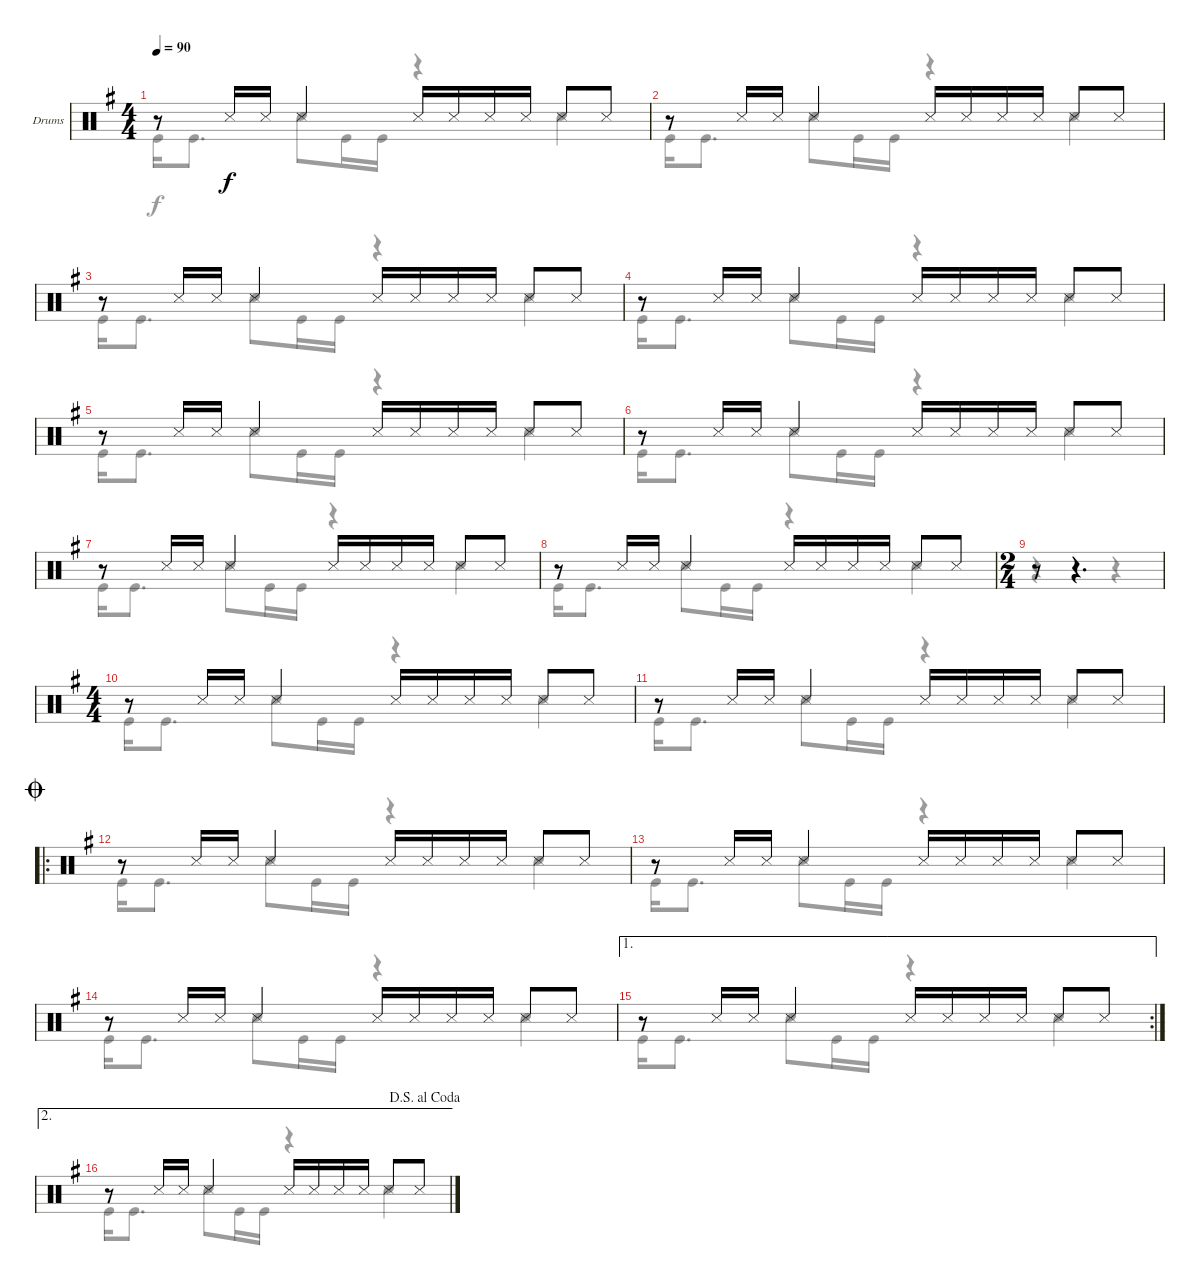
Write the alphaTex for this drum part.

\bracketExtendMode groupsimilarinstruments
\firstSystemTrackNameOrientation horizontal
\otherSystemsTrackNameOrientation horizontal
\track ("Drumkit" "Drums") {instrument percussion}
\staff {score}
\articulation defaults
\voice
\ts (4 4)
\tempo 90
\clef neutral
\ks g
r.8{dy f} "Snare (side stick) 3".16 "Snare (side stick) 3".16 "Snare (side stick) 3".4 "Snare (side stick) 3".16 "Snare (side stick) 3".16 "Snare (side stick) 3".16 "Snare (side stick) 3".16 "Snare (side stick) 3".8 "Snare (side stick) 3".8 |
r.8 "Snare (side stick) 3".16 "Snare (side stick) 3".16 "Snare (side stick) 3".4 "Snare (side stick) 3".16 "Snare (side stick) 3".16 "Snare (side stick) 3".16 "Snare (side stick) 3".16 "Snare (side stick) 3".8 "Snare (side stick) 3".8 |
r.8 "Snare (side stick) 3".16 "Snare (side stick) 3".16 "Snare (side stick) 3".4 "Snare (side stick) 3".16 "Snare (side stick) 3".16 "Snare (side stick) 3".16 "Snare (side stick) 3".16 "Snare (side stick) 3".8 "Snare (side stick) 3".8 |
r.8 "Snare (side stick) 3".16 "Snare (side stick) 3".16 "Snare (side stick) 3".4 "Snare (side stick) 3".16 "Snare (side stick) 3".16 "Snare (side stick) 3".16 "Snare (side stick) 3".16 "Snare (side stick) 3".8 "Snare (side stick) 3".8 |
r.8 "Snare (side stick) 3".16 "Snare (side stick) 3".16 "Snare (side stick) 3".4 "Snare (side stick) 3".16 "Snare (side stick) 3".16 "Snare (side stick) 3".16 "Snare (side stick) 3".16 "Snare (side stick) 3".8 "Snare (side stick) 3".8 |
r.8 "Snare (side stick) 3".16 "Snare (side stick) 3".16 "Snare (side stick) 3".4 "Snare (side stick) 3".16 "Snare (side stick) 3".16 "Snare (side stick) 3".16 "Snare (side stick) 3".16 "Snare (side stick) 3".8 "Snare (side stick) 3".8 |
r.8 "Snare (side stick) 3".16 "Snare (side stick) 3".16 "Snare (side stick) 3".4 "Snare (side stick) 3".16 "Snare (side stick) 3".16 "Snare (side stick) 3".16 "Snare (side stick) 3".16 "Snare (side stick) 3".8 "Snare (side stick) 3".8 |
r.8 "Snare (side stick) 3".16 "Snare (side stick) 3".16 "Snare (side stick) 3".4 "Snare (side stick) 3".16 "Snare (side stick) 3".16 "Snare (side stick) 3".16 "Snare (side stick) 3".16 "Snare (side stick) 3".8 "Snare (side stick) 3".8 |
\ts (2 4)
r.8 r.4{d} |
\ts (4 4)
r.8 "Snare (side stick) 3".16 "Snare (side stick) 3".16 "Snare (side stick) 3".4 "Snare (side stick) 3".16 "Snare (side stick) 3".16 "Snare (side stick) 3".16 "Snare (side stick) 3".16 "Snare (side stick) 3".8 "Snare (side stick) 3".8 |
r.8 "Snare (side stick) 3".16 "Snare (side stick) 3".16 "Snare (side stick) 3".4 "Snare (side stick) 3".16 "Snare (side stick) 3".16 "Snare (side stick) 3".16 "Snare (side stick) 3".16 "Snare (side stick) 3".8 "Snare (side stick) 3".8 |
\ro
\jump coda
r.8 "Snare (side stick) 3".16 "Snare (side stick) 3".16 "Snare (side stick) 3".4 "Snare (side stick) 3".16 "Snare (side stick) 3".16 "Snare (side stick) 3".16 "Snare (side stick) 3".16 "Snare (side stick) 3".8 "Snare (side stick) 3".8 |
r.8 "Snare (side stick) 3".16 "Snare (side stick) 3".16 "Snare (side stick) 3".4 "Snare (side stick) 3".16 "Snare (side stick) 3".16 "Snare (side stick) 3".16 "Snare (side stick) 3".16 "Snare (side stick) 3".8 "Snare (side stick) 3".8 |
r.8 "Snare (side stick) 3".16 "Snare (side stick) 3".16 "Snare (side stick) 3".4 "Snare (side stick) 3".16 "Snare (side stick) 3".16 "Snare (side stick) 3".16 "Snare (side stick) 3".16 "Snare (side stick) 3".8 "Snare (side stick) 3".8 |
\ae 1
\rc 2
r.8 "Snare (side stick) 3".16 "Snare (side stick) 3".16 "Snare (side stick) 3".4 "Snare (side stick) 3".16 "Snare (side stick) 3".16 "Snare (side stick) 3".16 "Snare (side stick) 3".16 "Snare (side stick) 3".8 "Snare (side stick) 3".8 |
\ae 2
\jump dalsegnoalcoda
r.8 "Snare (side stick) 3".16 "Snare (side stick) 3".16 "Snare (side stick) 3".4 "Snare (side stick) 3".16 "Snare (side stick) 3".16 "Snare (side stick) 3".16 "Snare (side stick) 3".16 "Snare (side stick) 3".8 "Snare (side stick) 3".8
\voice
\clef neutral
\ottava regular
\simile none
\ks g "Kick (hit)".16{dy f} "Kick (hit)".8{d} "Snare (hit) 2".8 "Kick (hit)".16 "Kick (hit)".16
r.4 "Snare (hit) 2".4 |
"Kick (hit)".16 "Kick (hit)".8{d} "Snare (hit) 2".8 "Kick (hit)".16 "Kick (hit)".16 r.4 "Snare (hit) 2".4 |
"Kick (hit)".16 "Kick (hit)".8{d} "Snare (hit) 2".8 "Kick (hit)".16 "Kick (hit)".16 r.4 "Snare (hit) 2".4 |
"Kick (hit)".16 "Kick (hit)".8{d} "Snare (hit) 2".8 "Kick (hit)".16 "Kick (hit)".16 r.4 "Snare (hit) 2".4 |
"Kick (hit)".16 "Kick (hit)".8{d} "Snare (hit) 2".8 "Kick (hit)".16 "Kick (hit)".16 r.4 "Snare (hit) 2".4 |
"Kick (hit)".16 "Kick (hit)".8{d} "Snare (hit) 2".8 "Kick (hit)".16 "Kick (hit)".16 r.4 "Snare (hit) 2".4 |
"Kick (hit)".16 "Kick (hit)".8{d} "Snare (hit) 2".8 "Kick (hit)".16 "Kick (hit)".16 r.4 "Snare (hit) 2".4 |
"Kick (hit)".16 "Kick (hit)".8{d} "Snare (hit) 2".8 "Kick (hit)".16 "Kick (hit)".16 r.4 "Snare (hit) 2".4 |
r.4 r.4 |
"Kick (hit)".16 "Kick (hit)".8{d} "Snare (hit) 2".8 "Kick (hit)".16 "Kick (hit)".16 r.4 "Snare (hit) 2".4 |
"Kick (hit)".16 "Kick (hit)".8{d} "Snare (hit) 2".8 "Kick (hit)".16 "Kick (hit)".16 r.4 "Snare (hit) 2".4 |
"Kick (hit)".16 "Kick (hit)".8{d} "Snare (hit) 2".8 "Kick (hit)".16 "Kick (hit)".16 r.4 "Snare (hit) 2".4 |
"Kick (hit)".16 "Kick (hit)".8{d} "Snare (hit) 2".8 "Kick (hit)".16 "Kick (hit)".16 r.4 "Snare (hit) 2".4 |
"Kick (hit)".16 "Kick (hit)".8{d} "Snare (hit) 2".8 "Kick (hit)".16 "Kick (hit)".16 r.4 "Snare (hit) 2".4 |
"Kick (hit)".16 "Kick (hit)".8{d} "Snare (hit) 2".8 "Kick (hit)".16 "Kick (hit)".16 r.4 "Snare (hit) 2".4 |
"Kick (hit)".16 "Kick (hit)".8{d} "Snare (hit) 2".8 "Kick (hit)".16 "Kick (hit)".16 r.4 "Snare (hit) 2".4
